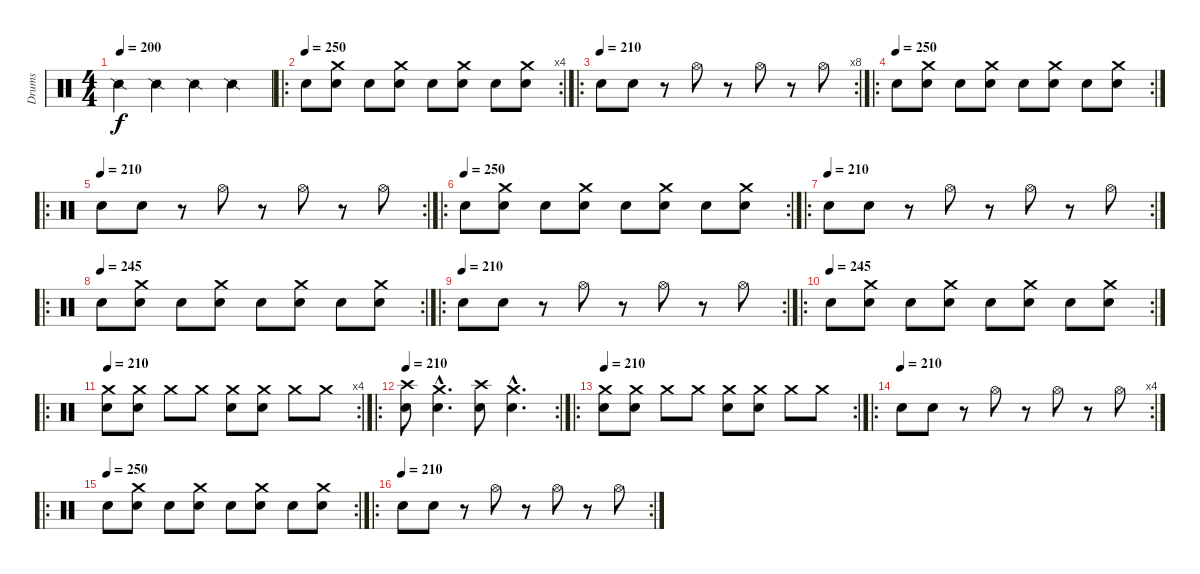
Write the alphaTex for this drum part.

\track ("Drums" "Drums") {instrument percussion}
\staff {score}
\articulation defaults
\ts (4 4)
\tempo 200
\clef neutral
\ks c "Snare (side stick) 2".4{dy f} "Snare (side stick) 2".4 "Snare (side stick) 2".4 "Snare (side stick) 2".4
|
\ro
\rc 4
\tempo (250)
"Electric Snare (hit)".8 ("Electric Snare (hit)" "Crash medium (hit)").8 "Electric Snare (hit)".8 ("Electric Snare (hit)" "Crash medium (hit)").8 "Electric Snare (hit)".8 ("Electric Snare (hit)" "Crash medium (hit)").8 "Electric Snare (hit)".8 ("Electric Snare (hit)" "Crash medium (hit)").8 |
\ro
\rc 8
\tempo (210)
"Snare (hit) 2".8 "Snare (hit) 2".8 r.8 "Hi-Hat (open)".8 r.8 "Hi-Hat (open)".8 r.8 "Hi-Hat (open)".8 |
\ro
\rc 2
\tempo (250)
"Electric Snare (hit)".8 ("Electric Snare (hit)" "Crash medium (hit)").8 "Electric Snare (hit)".8 ("Electric Snare (hit)" "Crash medium (hit)").8 "Electric Snare (hit)".8 ("Electric Snare (hit)" "Crash medium (hit)").8 "Electric Snare (hit)".8 ("Electric Snare (hit)" "Crash medium (hit)").8 |
\ro
\rc 2
\tempo (210)
"Snare (hit) 2".8 "Snare (hit) 2".8 r.8 "Hi-Hat (open)".8 r.8 "Hi-Hat (open)".8 r.8 "Hi-Hat (open)".8 |
\ro
\rc 2
\tempo (250)
"Electric Snare (hit)".8 ("Electric Snare (hit)" "Crash medium (hit)").8 "Electric Snare (hit)".8 ("Electric Snare (hit)" "Crash medium (hit)").8 "Electric Snare (hit)".8 ("Electric Snare (hit)" "Crash medium (hit)").8 "Electric Snare (hit)".8 ("Electric Snare (hit)" "Crash medium (hit)").8 |
\ro
\rc 2
\tempo (210)
"Snare (hit) 2".8 "Snare (hit) 2".8 r.8 "Hi-Hat (open)".8 r.8 "Hi-Hat (open)".8 r.8 "Hi-Hat (open)".8 |
\ro
\rc 2
\tempo (245)
"Electric Snare (hit)".8 ("Electric Snare (hit)" "Crash medium (hit)").8 "Electric Snare (hit)".8 ("Electric Snare (hit)" "Crash medium (hit)").8 "Electric Snare (hit)".8 ("Electric Snare (hit)" "Crash medium (hit)").8 "Electric Snare (hit)".8 ("Electric Snare (hit)" "Crash medium (hit)").8 |
\ro
\rc 2
\tempo (210)
"Snare (hit) 2".8 "Snare (hit) 2".8 r.8 "Hi-Hat (open)".8 r.8 "Hi-Hat (open)".8 r.8 "Hi-Hat (open)".8 |
\ro
\rc 2
\tempo (245)
"Electric Snare (hit)".8 ("Electric Snare (hit)" "Crash medium (hit)").8 "Electric Snare (hit)".8 ("Electric Snare (hit)" "Crash medium (hit)").8 "Electric Snare (hit)".8 ("Electric Snare (hit)" "Crash medium (hit)").8 "Electric Snare (hit)".8 ("Electric Snare (hit)" "Crash medium (hit)").8 |
\ro
\rc 4
\tempo 210
("Crash medium (hit)" "Snare (hit) 2").8 ("Crash medium (hit)" "Snare (hit) 2").8 "Crash medium (hit)".8 "Crash medium (hit)".8 ("Crash medium (hit)" "Snare (hit) 2").8 ("Crash medium (hit)" "Snare (hit) 2").8 "Crash medium (hit)".8 "Crash medium (hit)".8 |
\ro
\rc 2
\tempo 210
("Crash high (hit)" "Electric Snare (hit)").8 ("Crash medium (hit)"{hac} "Electric Snare (hit)"{hac}).4{d} ("Crash high (hit)" "Electric Snare (hit)").8 ("Crash medium (hit)"{hac} "Electric Snare (hit)"{hac}).4{d} |
\ro
\rc 2
\tempo 210
("Crash medium (hit)" "Snare (hit) 2").8 ("Crash medium (hit)" "Snare (hit) 2").8 "Crash medium (hit)".8 "Crash medium (hit)".8 ("Crash medium (hit)" "Snare (hit) 2").8 ("Crash medium (hit)" "Snare (hit) 2").8 "Crash medium (hit)".8 "Crash medium (hit)".8 |
\ro
\rc 4
\tempo (210)
"Snare (hit) 2".8 "Snare (hit) 2".8 r.8 "Hi-Hat (open)".8 r.8 "Hi-Hat (open)".8 r.8 "Hi-Hat (open)".8 |
\ro
\rc 2
\tempo (250)
"Electric Snare (hit)".8 ("Electric Snare (hit)" "Crash medium (hit)").8 "Electric Snare (hit)".8 ("Electric Snare (hit)" "Crash medium (hit)").8 "Electric Snare (hit)".8 ("Electric Snare (hit)" "Crash medium (hit)").8 "Electric Snare (hit)".8 ("Electric Snare (hit)" "Crash medium (hit)").8 |
\ro
\rc 2
\tempo (210)
"Snare (hit) 2".8 "Snare (hit) 2".8 r.8 "Hi-Hat (open)".8 r.8 "Hi-Hat (open)".8 r.8 "Hi-Hat (open)".8
